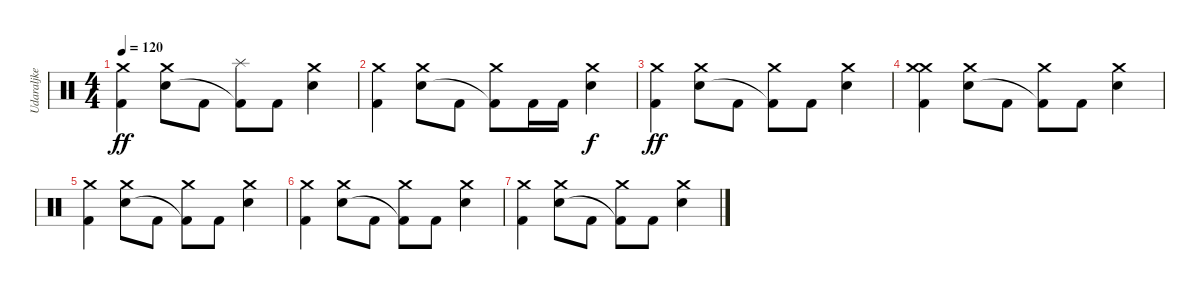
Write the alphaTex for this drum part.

\track ("Udaraljke" "Udaraljke") {instrument percussion}
\staff {score}
\articulation defaults
\ts (4 4)
\tempo 120
\clef neutral
\ks c
("Crash medium (hit)" "Kick (hit) 2").4{dy ff} ("Crash medium (hit)" "Electric Snare (hit)").8 "Kick (hit) 2".8 ("Splash (hit)" "Kick (hit) 2"{t}).8 "Kick (hit) 2".8 ("Crash medium (hit)" "Electric Snare (hit)").4 |
("Crash medium (hit)" "Kick (hit) 2").4 ("Crash medium (hit)" "Electric Snare (hit)").8 "Kick (hit) 2".8 ("Crash medium (hit)" "Kick (hit) 2"{t}).8 "Kick (hit) 2".16 "Kick (hit) 2".16 ("Crash medium (hit)" "Electric Snare (hit)").4{dy f} |
("Crash medium (hit)" "Kick (hit) 2").4{dy ff} ("Crash medium (hit)" "Electric Snare (hit)").8 "Kick (hit) 2".8 ("Crash medium (hit)" "Kick (hit) 2"{t}).8 "Kick (hit) 2".8 ("Crash medium (hit)" "Electric Snare (hit)").4 |
("Crash medium (hit)" "Crash medium (hit)" "Kick (hit) 2").4 ("Crash medium (hit)" "Electric Snare (hit)").8 "Kick (hit) 2".8 ("Crash medium (hit)" "Kick (hit) 2"{t}).8 "Kick (hit) 2".8 ("Crash medium (hit)" "Electric Snare (hit)").4 |
("Crash medium (hit)" "Kick (hit) 2").4 ("Crash medium (hit)" "Electric Snare (hit)").8 "Kick (hit) 2".8 ("Crash medium (hit)" "Kick (hit) 2"{t}).8 "Kick (hit) 2".8 ("Crash medium (hit)" "Electric Snare (hit)").4 |
("Crash medium (hit)" "Kick (hit) 2").4 ("Crash medium (hit)" "Electric Snare (hit)").8 "Kick (hit) 2".8 ("Crash medium (hit)" "Kick (hit) 2"{t}).8 "Kick (hit) 2".8 ("Crash medium (hit)" "Electric Snare (hit)").4 |
("Crash medium (hit)" "Kick (hit) 2").4 ("Crash medium (hit)" "Electric Snare (hit)").8 "Kick (hit) 2".8 ("Crash medium (hit)" "Kick (hit) 2"{t}).8 "Kick (hit) 2".8 ("Crash medium (hit)" "Electric Snare (hit)").4
